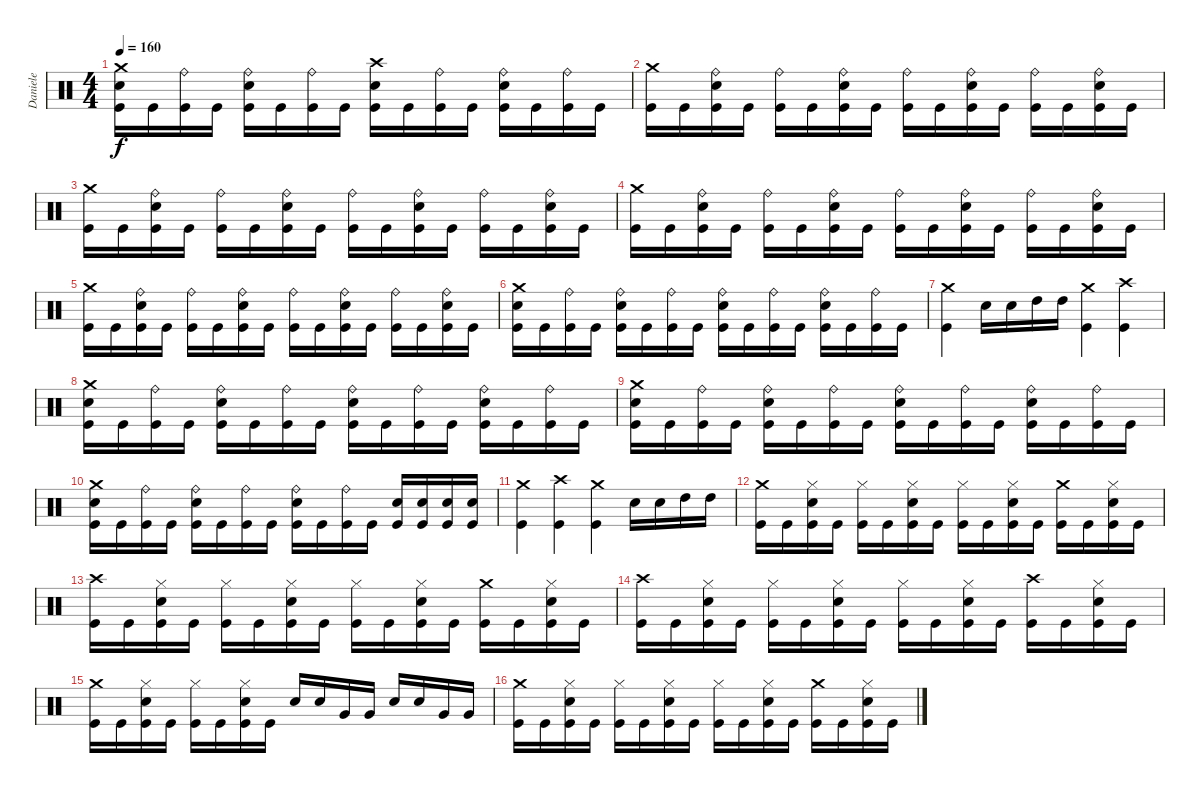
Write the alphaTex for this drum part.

\track ("Daniele" "Daniele") {instrument percussion}
\staff {score}
\articulation defaults
\ts (4 4)
\tempo 160
\clef neutral
\ks c
("Kick (hit)" "Electric Snare (hit)" "Crash medium (hit)").16{dy f} "Kick (hit)".16 ("Kick (hit)" "Ride (bell)").16 "Kick (hit)".16 ("Kick (hit)" "Electric Snare (hit)" "Ride (bell)").16 "Kick (hit)".16 ("Kick (hit)" "Ride (bell)").16 "Kick (hit)".16 ("Kick (hit)" "Electric Snare (hit)" "Crash high (hit)").16 "Kick (hit)".16 ("Kick (hit)" "Ride (bell)").16 "Kick (hit)".16 ("Kick (hit)" "Electric Snare (hit)" "Ride (bell)").16 "Kick (hit)".16 ("Kick (hit)" "Ride (bell)").16 "Kick (hit)".16 |
("Kick (hit)" "Crash medium (hit)").16 "Kick (hit)".16 ("Kick (hit)" "Electric Snare (hit)" "Ride (bell)").16 "Kick (hit)".16 ("Kick (hit)" "Ride (bell)").16 "Kick (hit)".16 ("Kick (hit)" "Electric Snare (hit)" "Ride (bell)").16 "Kick (hit)".16 ("Kick (hit)" "Ride (bell)").16 "Kick (hit)".16 ("Kick (hit)" "Electric Snare (hit)" "Ride (bell)").16 "Kick (hit)".16 ("Kick (hit)" "Ride (bell)").16 "Kick (hit)".16 ("Kick (hit)" "Electric Snare (hit)" "Ride (bell)").16 "Kick (hit)".16 |
("Kick (hit)" "Crash medium (hit)").16 "Kick (hit)".16 ("Kick (hit)" "Electric Snare (hit)" "Ride (bell)").16 "Kick (hit)".16 ("Kick (hit)" "Ride (bell)").16 "Kick (hit)".16 ("Kick (hit)" "Electric Snare (hit)" "Ride (bell)").16 "Kick (hit)".16 ("Kick (hit)" "Ride (bell)").16 "Kick (hit)".16 ("Kick (hit)" "Electric Snare (hit)" "Ride (bell)").16 "Kick (hit)".16 ("Kick (hit)" "Ride (bell)").16 "Kick (hit)".16 ("Kick (hit)" "Electric Snare (hit)" "Ride (bell)").16 "Kick (hit)".16 |
("Kick (hit)" "Crash medium (hit)").16 "Kick (hit)".16 ("Kick (hit)" "Electric Snare (hit)" "Ride (bell)").16 "Kick (hit)".16 ("Kick (hit)" "Ride (bell)").16 "Kick (hit)".16 ("Kick (hit)" "Electric Snare (hit)" "Ride (bell)").16 "Kick (hit)".16 ("Kick (hit)" "Ride (bell)").16 "Kick (hit)".16 ("Kick (hit)" "Electric Snare (hit)" "Ride (bell)").16 "Kick (hit)".16 ("Kick (hit)" "Ride (bell)").16 "Kick (hit)".16 ("Kick (hit)" "Electric Snare (hit)" "Ride (bell)").16 "Kick (hit)".16 |
("Kick (hit)" "Crash medium (hit)").16 "Kick (hit)".16 ("Kick (hit)" "Electric Snare (hit)" "Ride (bell)").16 "Kick (hit)".16 ("Kick (hit)" "Ride (bell)").16 "Kick (hit)".16 ("Kick (hit)" "Electric Snare (hit)" "Ride (bell)").16 "Kick (hit)".16 ("Kick (hit)" "Ride (bell)").16 "Kick (hit)".16 ("Kick (hit)" "Electric Snare (hit)" "Ride (bell)").16 "Kick (hit)".16 ("Kick (hit)" "Ride (bell)").16 "Kick (hit)".16 ("Kick (hit)" "Electric Snare (hit)" "Ride (bell)").16 "Kick (hit)".16 |
("Kick (hit)" "Electric Snare (hit)" "Crash medium (hit)").16 "Kick (hit)".16 ("Kick (hit)" "Ride (bell)").16 "Kick (hit)".16 ("Kick (hit)" "Electric Snare (hit)" "Ride (bell)").16 "Kick (hit)".16 ("Kick (hit)" "Ride (bell)").16 "Kick (hit)".16 ("Kick (hit)" "Electric Snare (hit)" "Ride (bell)").16 "Kick (hit)".16 ("Kick (hit)" "Ride (bell)").16 "Kick (hit)".16 ("Kick (hit)" "Electric Snare (hit)" "Ride (bell)").16 "Kick (hit)".16 ("Kick (hit)" "Ride (bell)").16 "Kick (hit)".16 |
("Kick (hit)" "Crash medium (hit)").4 "Electric Snare (hit)".16 "Electric Snare (hit)".16 "High Tom (hit)".16 "High Tom (hit)".16 ("Kick (hit)" "Crash medium (hit)").4 ("Kick (hit)" "Crash high (hit)").4 |
("Kick (hit)" "Electric Snare (hit)" "Crash medium (hit)").16 "Kick (hit)".16 ("Kick (hit)" "Ride (bell)").16 "Kick (hit)".16 ("Kick (hit)" "Electric Snare (hit)" "Ride (bell)").16 "Kick (hit)".16 ("Kick (hit)" "Ride (bell)").16 "Kick (hit)".16 ("Kick (hit)" "Electric Snare (hit)" "Ride (bell)").16 "Kick (hit)".16 ("Kick (hit)" "Ride (bell)").16 "Kick (hit)".16 ("Kick (hit)" "Electric Snare (hit)" "Ride (bell)").16 "Kick (hit)".16 ("Kick (hit)" "Ride (bell)").16 "Kick (hit)".16 |
("Kick (hit)" "Electric Snare (hit)" "Crash medium (hit)").16 "Kick (hit)".16 ("Kick (hit)" "Ride (bell)").16 "Kick (hit)".16 ("Kick (hit)" "Electric Snare (hit)" "Ride (bell)").16 "Kick (hit)".16 ("Kick (hit)" "Ride (bell)").16 "Kick (hit)".16 ("Kick (hit)" "Electric Snare (hit)" "Ride (bell)").16 "Kick (hit)".16 ("Kick (hit)" "Ride (bell)").16 "Kick (hit)".16 ("Kick (hit)" "Electric Snare (hit)" "Ride (bell)").16 "Kick (hit)".16 ("Kick (hit)" "Ride (bell)").16 "Kick (hit)".16 |
("Kick (hit)" "Electric Snare (hit)" "Crash medium (hit)").16 "Kick (hit)".16 ("Kick (hit)" "Ride (bell)").16 "Kick (hit)".16 ("Kick (hit)" "Electric Snare (hit)" "Ride (bell)").16 "Kick (hit)".16 ("Kick (hit)" "Ride (bell)").16 "Kick (hit)".16 ("Kick (hit)" "Electric Snare (hit)" "Ride (bell)").16 "Kick (hit)".16 ("Kick (hit)" "Ride (bell)").16 "Kick (hit)".16 ("Kick (hit)" "Electric Snare (hit)").16 ("Kick (hit)" "Electric Snare (hit)").16 ("Kick (hit)" "Electric Snare (hit)").16 ("Kick (hit)" "Electric Snare (hit)").16 |
("Kick (hit)" "Crash medium (hit)").4 ("Kick (hit)" "Crash high (hit)").4 ("Kick (hit)" "Crash medium (hit)").4 "Electric Snare (hit)".16 "Electric Snare (hit)".16 "High Tom (hit)".16 "High Tom (hit)".16 |
("Kick (hit)" "Crash medium (hit)").16 "Kick (hit)".16 ("Kick (hit)" "Electric Snare (hit)" "Hi-Hat (closed)").16 "Kick (hit)".16 ("Kick (hit)" "Hi-Hat (closed)").16 "Kick (hit)".16 ("Kick (hit)" "Electric Snare (hit)" "Hi-Hat (closed)").16 "Kick (hit)".16 ("Kick (hit)" "Hi-Hat (closed)").16 "Kick (hit)".16 ("Kick (hit)" "Electric Snare (hit)" "Hi-Hat (closed)").16 "Kick (hit)".16 ("Kick (hit)" "Crash medium (hit)").16 "Kick (hit)".16 ("Kick (hit)" "Electric Snare (hit)" "Hi-Hat (closed)").16 "Kick (hit)".16 |
("Kick (hit)" "Crash high (hit)").16 "Kick (hit)".16 ("Kick (hit)" "Electric Snare (hit)" "Hi-Hat (closed)").16 "Kick (hit)".16 ("Kick (hit)" "Hi-Hat (closed)").16 "Kick (hit)".16 ("Kick (hit)" "Electric Snare (hit)" "Hi-Hat (closed)").16 "Kick (hit)".16 ("Kick (hit)" "Hi-Hat (closed)").16 "Kick (hit)".16 ("Kick (hit)" "Electric Snare (hit)" "Hi-Hat (closed)").16 "Kick (hit)".16 ("Kick (hit)" "Crash medium (hit)").16 "Kick (hit)".16 ("Kick (hit)" "Electric Snare (hit)" "Hi-Hat (closed)").16 "Kick (hit)".16 |
("Kick (hit)" "Crash high (hit)").16 "Kick (hit)".16 ("Kick (hit)" "Electric Snare (hit)" "Hi-Hat (closed)").16 "Kick (hit)".16 ("Kick (hit)" "Hi-Hat (closed)").16 "Kick (hit)".16 ("Kick (hit)" "Electric Snare (hit)" "Hi-Hat (closed)").16 "Kick (hit)".16 ("Kick (hit)" "Hi-Hat (closed)").16 "Kick (hit)".16 ("Kick (hit)" "Electric Snare (hit)" "Hi-Hat (closed)").16 "Kick (hit)".16 ("Kick (hit)" "Crash high (hit)").16 "Kick (hit)".16 ("Kick (hit)" "Electric Snare (hit)" "Hi-Hat (closed)").16 "Kick (hit)".16 |
("Kick (hit)" "Crash medium (hit)").16 "Kick (hit)".16 ("Kick (hit)" "Electric Snare (hit)" "Hi-Hat (closed)").16 "Kick (hit)".16 ("Kick (hit)" "Hi-Hat (closed)").16 "Kick (hit)".16 ("Kick (hit)" "Electric Snare (hit)" "Hi-Hat (closed)").16 "Kick (hit)".16 "Electric Snare (hit)".16 "Electric Snare (hit)".16 "Very Low Tom (hit)".16 "Very Low Tom (hit)".16 "Electric Snare (hit)".16 "Electric Snare (hit)".16 "Very Low Tom (hit)".16 "Very Low Tom (hit)".16 |
("Kick (hit)" "Crash medium (hit)").16 "Kick (hit)".16 ("Kick (hit)" "Electric Snare (hit)" "Hi-Hat (closed)").16 "Kick (hit)".16 ("Kick (hit)" "Hi-Hat (closed)").16 "Kick (hit)".16 ("Kick (hit)" "Electric Snare (hit)" "Hi-Hat (closed)").16 "Kick (hit)".16 ("Kick (hit)" "Hi-Hat (closed)").16 "Kick (hit)".16 ("Kick (hit)" "Electric Snare (hit)" "Hi-Hat (closed)").16 "Kick (hit)".16 ("Kick (hit)" "Crash medium (hit)").16 "Kick (hit)".16 ("Kick (hit)" "Electric Snare (hit)" "Hi-Hat (closed)").16 "Kick (hit)".16
